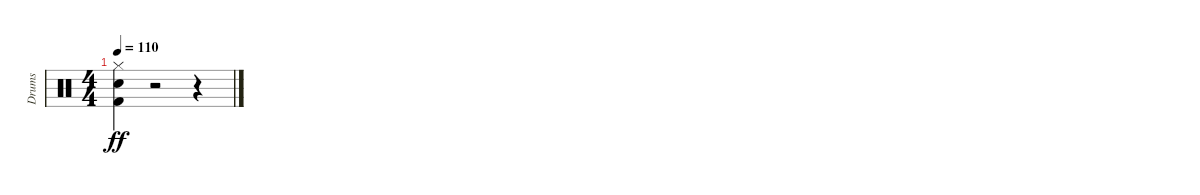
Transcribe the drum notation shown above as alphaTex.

\track ("Drums" "Drums") {instrument percussion}
\staff {score}
\articulation defaults
\ts (4 4)
\tempo 110
\clef neutral
\ks c
("Kick (hit) 2" "Snare (hit) 2" "Hi-Hat (closed)").4{dy ff} r.2 r.4
